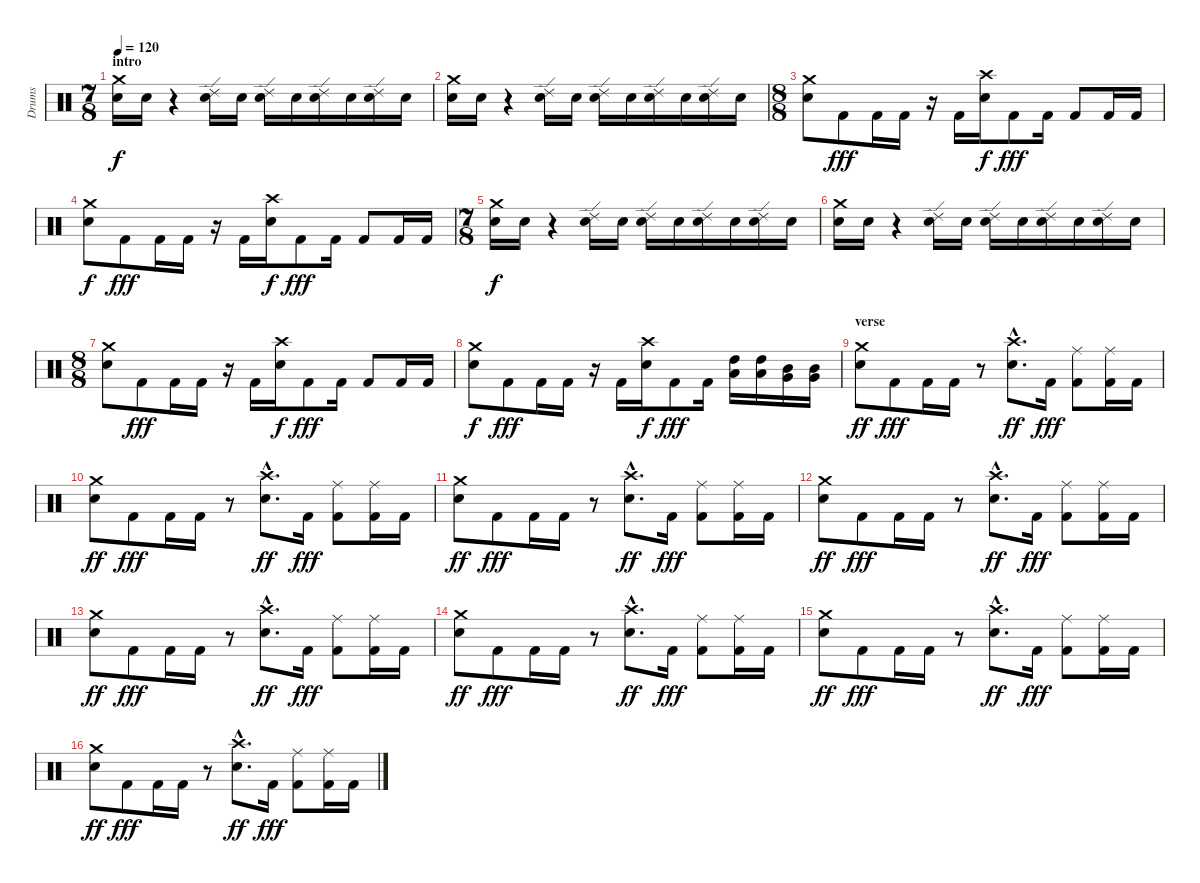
\track ("Drums" "Drums") {instrument percussion}
\staff {score}
\articulation defaults
\ts (7 8)
\section ("" "intro")
\tempo 120
\clef neutral
\ks c
("Snare (hit) 2" "Crash medium (hit)").16{dy f} "Snare (hit) 2".16 r.4 ("Electric Snare (hit)" "Ride (edge) 2").16 "Electric Snare (hit)".16 ("Snare (hit) 2" "Ride (edge) 2").16 "Snare (hit) 2".16 ("Electric Snare (hit)" "Ride (edge) 2").16 "Electric Snare (hit)".16 ("Snare (hit) 2" "Ride (edge) 2").16 "Snare (hit) 2".16 |
("Snare (hit) 2" "Crash medium (hit)").16 "Snare (hit) 2".16 r.4 ("Electric Snare (hit)" "Ride (edge) 2").16 "Electric Snare (hit)".16 ("Snare (hit) 2" "Ride (edge) 2").16 "Snare (hit) 2".16 ("Electric Snare (hit)" "Ride (edge) 2").16 "Electric Snare (hit)".16 ("Snare (hit) 2" "Ride (edge) 2").16 "Snare (hit) 2".16 |
\ts (8 8)
("Electric Snare (hit)" "Crash medium (hit)").8 "Kick (hit) 2".8{dy fff} "Kick (hit) 2".16 "Kick (hit) 2".16 r.16 "Kick (hit) 2".16 ("Electric Snare (hit)" "Crash high (hit)").16{dy f} "Kick (hit) 2".8{dy fff} "Kick (hit) 2".16 "Kick (hit) 2".8 "Kick (hit) 2".16 "Kick (hit) 2".16 |
("Electric Snare (hit)" "Crash medium (hit)").8{dy f} "Kick (hit) 2".8{dy fff} "Kick (hit) 2".16 "Kick (hit) 2".16 r.16 "Kick (hit) 2".16 ("Electric Snare (hit)" "Crash high (hit)").16{dy f} "Kick (hit) 2".8{dy fff} "Kick (hit) 2".16 "Kick (hit) 2".8 "Kick (hit) 2".16 "Kick (hit) 2".16 |
\ts (7 8)
("Snare (hit) 2" "Crash medium (hit)").16{dy f} "Snare (hit) 2".16 r.4 ("Electric Snare (hit)" "Ride (edge) 2").16 "Electric Snare (hit)".16 ("Snare (hit) 2" "Ride (edge) 2").16 "Snare (hit) 2".16 ("Electric Snare (hit)" "Ride (edge) 2").16 "Electric Snare (hit)".16 ("Snare (hit) 2" "Ride (edge) 2").16 "Snare (hit) 2".16 |
("Snare (hit) 2" "Crash medium (hit)").16 "Snare (hit) 2".16 r.4 ("Electric Snare (hit)" "Ride (edge) 2").16 "Electric Snare (hit)".16 ("Snare (hit) 2" "Ride (edge) 2").16 "Snare (hit) 2".16 ("Electric Snare (hit)" "Ride (edge) 2").16 "Electric Snare (hit)".16 ("Snare (hit) 2" "Ride (edge) 2").16 "Snare (hit) 2".16 |
\ts (8 8)
("Electric Snare (hit)" "Crash medium (hit)").8 "Kick (hit) 2".8{dy fff} "Kick (hit) 2".16 "Kick (hit) 2".16 r.16 "Kick (hit) 2".16 ("Electric Snare (hit)" "Crash high (hit)").16{dy f} "Kick (hit) 2".8{dy fff} "Kick (hit) 2".16 "Kick (hit) 2".8 "Kick (hit) 2".16 "Kick (hit) 2".16 |
("Electric Snare (hit)" "Crash medium (hit)").8{dy f} "Kick (hit) 2".8{dy fff} "Kick (hit) 2".16 "Kick (hit) 2".16 r.16 "Kick (hit) 2".16 ("Electric Snare (hit)" "Crash high (hit)").16{dy f} "Kick (hit) 2".8{dy fff} "Kick (hit) 2".16 ("High Tom (hit)" "Low Tom (hit)").16 ("High Tom (hit)" "Low Tom (hit)").16 ("Mid Tom (hit)" "Very Low Tom (hit)").16 ("Mid Tom (hit)" "Very Low Tom (hit)").16 |
\section ("" "verse")
("Crash medium (hit)" "Electric Snare (hit)").8{dy ff} "Kick (hit) 2".8{dy fff} "Kick (hit) 2".16 "Kick (hit) 2".16 r.8 ("Crash high (hit)"{hac} "Electric Snare (hit)"{hac}).8{d dy ff} "Kick (hit) 2".16{dy fff} ("Ride (middle)" "Kick (hit) 2").8 ("Ride (middle)" "Kick (hit) 2").16 "Kick (hit) 2".16 |
("Crash medium (hit)" "Electric Snare (hit)").8{dy ff} "Kick (hit) 2".8{dy fff} "Kick (hit) 2".16 "Kick (hit) 2".16 r.8 ("Crash high (hit)"{hac} "Electric Snare (hit)"{hac}).8{d dy ff} "Kick (hit) 2".16{dy fff} ("Ride (middle)" "Kick (hit) 2").8 ("Ride (middle)" "Kick (hit) 2").16 "Kick (hit) 2".16 |
("Crash medium (hit)" "Electric Snare (hit)").8{dy ff} "Kick (hit) 2".8{dy fff} "Kick (hit) 2".16 "Kick (hit) 2".16 r.8 ("Crash high (hit)"{hac} "Electric Snare (hit)"{hac}).8{d dy ff} "Kick (hit) 2".16{dy fff} ("Ride (middle)" "Kick (hit) 2").8 ("Ride (middle)" "Kick (hit) 2").16 "Kick (hit) 2".16 |
("Crash medium (hit)" "Electric Snare (hit)").8{dy ff} "Kick (hit) 2".8{dy fff} "Kick (hit) 2".16 "Kick (hit) 2".16 r.8 ("Crash high (hit)"{hac} "Electric Snare (hit)"{hac}).8{d dy ff} "Kick (hit) 2".16{dy fff} ("Ride (middle)" "Kick (hit) 2").8 ("Ride (middle)" "Kick (hit) 2").16 "Kick (hit) 2".16 |
("Crash medium (hit)" "Electric Snare (hit)").8{dy ff} "Kick (hit) 2".8{dy fff} "Kick (hit) 2".16 "Kick (hit) 2".16 r.8 ("Crash high (hit)"{hac} "Electric Snare (hit)"{hac}).8{d dy ff} "Kick (hit) 2".16{dy fff} ("Ride (middle)" "Kick (hit) 2").8 ("Ride (middle)" "Kick (hit) 2").16 "Kick (hit) 2".16 |
("Crash medium (hit)" "Electric Snare (hit)").8{dy ff} "Kick (hit) 2".8{dy fff} "Kick (hit) 2".16 "Kick (hit) 2".16 r.8 ("Crash high (hit)"{hac} "Electric Snare (hit)"{hac}).8{d dy ff} "Kick (hit) 2".16{dy fff} ("Ride (middle)" "Kick (hit) 2").8 ("Ride (middle)" "Kick (hit) 2").16 "Kick (hit) 2".16 |
("Crash medium (hit)" "Electric Snare (hit)").8{dy ff} "Kick (hit) 2".8{dy fff} "Kick (hit) 2".16 "Kick (hit) 2".16 r.8 ("Crash high (hit)"{hac} "Electric Snare (hit)"{hac}).8{d dy ff} "Kick (hit) 2".16{dy fff} ("Ride (middle)" "Kick (hit) 2").8 ("Ride (middle)" "Kick (hit) 2").16 "Kick (hit) 2".16 |
("Crash medium (hit)" "Electric Snare (hit)").8{dy ff} "Kick (hit) 2".8{dy fff} "Kick (hit) 2".16 "Kick (hit) 2".16 r.8 ("Crash high (hit)"{hac} "Electric Snare (hit)"{hac}).8{d dy ff} "Kick (hit) 2".16{dy fff} ("Ride (middle)" "Kick (hit) 2").8 ("Ride (middle)" "Kick (hit) 2").16 "Kick (hit) 2".16
